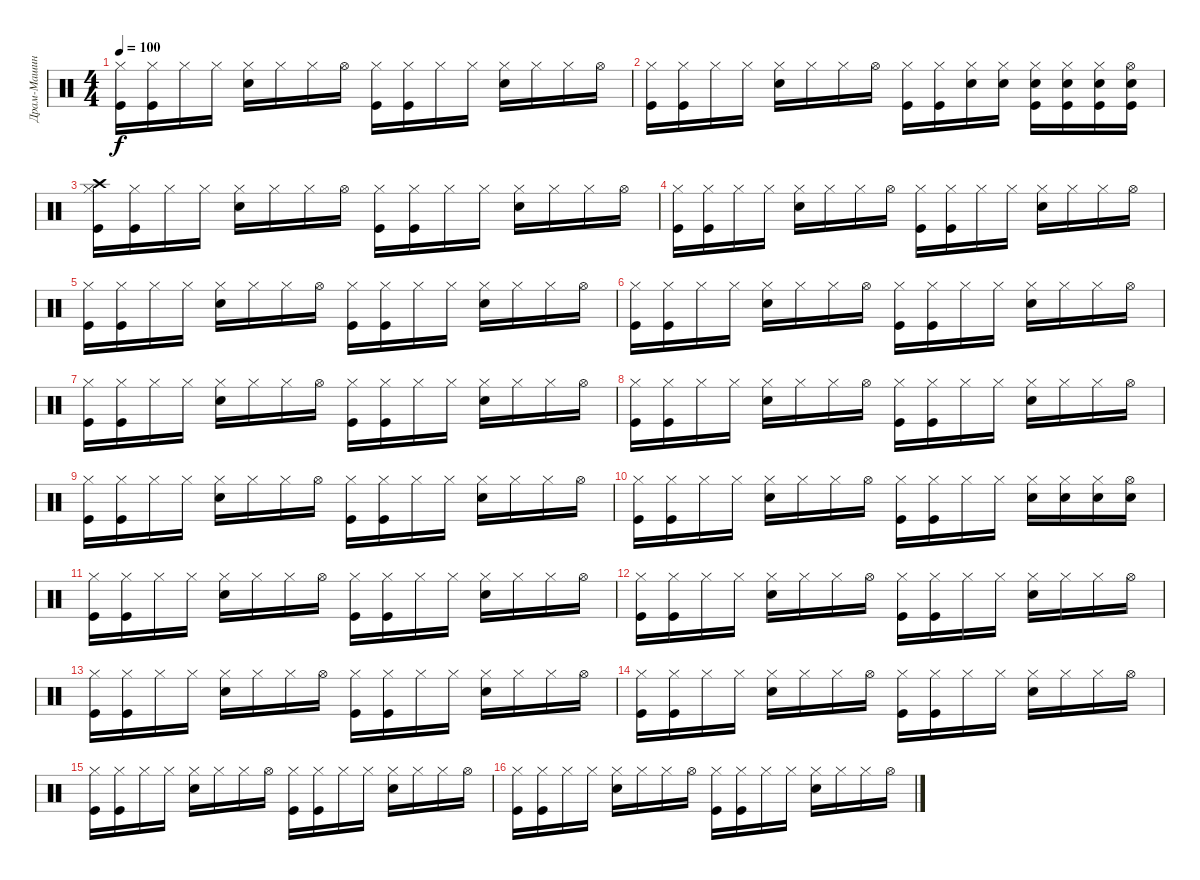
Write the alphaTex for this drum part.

\track ("Драм-Машина" "Драм-Машин") {instrument percussion}
\staff {score}
\articulation defaults
\ts (4 4)
\tempo 100
\clef neutral
\ks c
("Kick (hit)" "Hi-Hat (closed)").16{dy f} ("Kick (hit)" "Hi-Hat (closed)").16 "Hi-Hat (closed)".16 "Hi-Hat (closed)".16 ("Hi-Hat (closed)" "Electric Snare (hit)").16 "Hi-Hat (closed)".16 "Hi-Hat (closed)".16 "Hi-Hat (open)".16 ("Kick (hit)" "Hi-Hat (closed)").16 ("Kick (hit)" "Hi-Hat (closed)").16 "Hi-Hat (closed)".16 "Hi-Hat (closed)".16 ("Hi-Hat (closed)" "Electric Snare (hit)").16 "Hi-Hat (closed)".16 "Hi-Hat (closed)".16 "Hi-Hat (open)".16 |
("Kick (hit)" "Hi-Hat (closed)").16 ("Kick (hit)" "Hi-Hat (closed)").16 "Hi-Hat (closed)".16 "Hi-Hat (closed)".16 ("Hi-Hat (closed)" "Electric Snare (hit)").16 "Hi-Hat (closed)".16 "Hi-Hat (closed)".16 "Hi-Hat (open)".16 ("Kick (hit)" "Hi-Hat (closed)").16 ("Kick (hit)" "Hi-Hat (closed)").16 ("Electric Snare (hit)" "Hi-Hat (closed)").16 ("Electric Snare (hit)" "Hi-Hat (closed)").16 ("Kick (hit)" "Hi-Hat (closed)" "Electric Snare (hit)").16 ("Electric Snare (hit)" "Kick (hit)" "Hi-Hat (closed)").16 ("Electric Snare (hit)" "Kick (hit)" "Hi-Hat (closed)").16 ("Electric Snare (hit)" "Kick (hit)" "Hi-Hat (open)").16 |
("Crash high (hit)" "Kick (hit)" "Hi-Hat (closed)").16 ("Kick (hit)" "Hi-Hat (closed)").16 "Hi-Hat (closed)".16 "Hi-Hat (closed)".16 ("Hi-Hat (closed)" "Electric Snare (hit)").16 "Hi-Hat (closed)".16 "Hi-Hat (closed)".16 "Hi-Hat (open)".16 ("Kick (hit)" "Hi-Hat (closed)").16 ("Kick (hit)" "Hi-Hat (closed)").16 "Hi-Hat (closed)".16 "Hi-Hat (closed)".16 ("Hi-Hat (closed)" "Electric Snare (hit)").16 "Hi-Hat (closed)".16 "Hi-Hat (closed)".16 "Hi-Hat (open)".16 |
("Kick (hit)" "Hi-Hat (closed)").16 ("Kick (hit)" "Hi-Hat (closed)").16 "Hi-Hat (closed)".16 "Hi-Hat (closed)".16 ("Hi-Hat (closed)" "Electric Snare (hit)").16 "Hi-Hat (closed)".16 "Hi-Hat (closed)".16 "Hi-Hat (open)".16 ("Kick (hit)" "Hi-Hat (closed)").16 ("Kick (hit)" "Hi-Hat (closed)").16 "Hi-Hat (closed)".16 "Hi-Hat (closed)".16 ("Hi-Hat (closed)" "Electric Snare (hit)").16 "Hi-Hat (closed)".16 "Hi-Hat (closed)".16 "Hi-Hat (open)".16 |
("Kick (hit)" "Hi-Hat (closed)").16 ("Kick (hit)" "Hi-Hat (closed)").16 "Hi-Hat (closed)".16 "Hi-Hat (closed)".16 ("Hi-Hat (closed)" "Electric Snare (hit)").16 "Hi-Hat (closed)".16 "Hi-Hat (closed)".16 "Hi-Hat (open)".16 ("Kick (hit)" "Hi-Hat (closed)").16 ("Kick (hit)" "Hi-Hat (closed)").16 "Hi-Hat (closed)".16 "Hi-Hat (closed)".16 ("Hi-Hat (closed)" "Electric Snare (hit)").16 "Hi-Hat (closed)".16 "Hi-Hat (closed)".16 "Hi-Hat (open)".16 |
("Kick (hit)" "Hi-Hat (closed)").16 ("Kick (hit)" "Hi-Hat (closed)").16 "Hi-Hat (closed)".16 "Hi-Hat (closed)".16 ("Hi-Hat (closed)" "Electric Snare (hit)").16 "Hi-Hat (closed)".16 "Hi-Hat (closed)".16 "Hi-Hat (open)".16 ("Kick (hit)" "Hi-Hat (closed)").16 ("Kick (hit)" "Hi-Hat (closed)").16 "Hi-Hat (closed)".16 "Hi-Hat (closed)".16 ("Hi-Hat (closed)" "Electric Snare (hit)").16 "Hi-Hat (closed)".16 "Hi-Hat (closed)".16 "Hi-Hat (open)".16 |
("Kick (hit)" "Hi-Hat (closed)").16 ("Kick (hit)" "Hi-Hat (closed)").16 "Hi-Hat (closed)".16 "Hi-Hat (closed)".16 ("Hi-Hat (closed)" "Electric Snare (hit)").16 "Hi-Hat (closed)".16 "Hi-Hat (closed)".16 "Hi-Hat (open)".16 ("Kick (hit)" "Hi-Hat (closed)").16 ("Kick (hit)" "Hi-Hat (closed)").16 "Hi-Hat (closed)".16 "Hi-Hat (closed)".16 ("Hi-Hat (closed)" "Electric Snare (hit)").16 "Hi-Hat (closed)".16 "Hi-Hat (closed)".16 "Hi-Hat (open)".16 |
("Kick (hit)" "Hi-Hat (closed)").16 ("Kick (hit)" "Hi-Hat (closed)").16 "Hi-Hat (closed)".16 "Hi-Hat (closed)".16 ("Hi-Hat (closed)" "Electric Snare (hit)").16 "Hi-Hat (closed)".16 "Hi-Hat (closed)".16 "Hi-Hat (open)".16 ("Kick (hit)" "Hi-Hat (closed)").16 ("Kick (hit)" "Hi-Hat (closed)").16 "Hi-Hat (closed)".16 "Hi-Hat (closed)".16 ("Hi-Hat (closed)" "Electric Snare (hit)").16 "Hi-Hat (closed)".16 "Hi-Hat (closed)".16 "Hi-Hat (open)".16 |
("Kick (hit)" "Hi-Hat (closed)").16 ("Kick (hit)" "Hi-Hat (closed)").16 "Hi-Hat (closed)".16 "Hi-Hat (closed)".16 ("Hi-Hat (closed)" "Electric Snare (hit)").16 "Hi-Hat (closed)".16 "Hi-Hat (closed)".16 "Hi-Hat (open)".16 ("Kick (hit)" "Hi-Hat (closed)").16 ("Kick (hit)" "Hi-Hat (closed)").16 "Hi-Hat (closed)".16 "Hi-Hat (closed)".16 ("Hi-Hat (closed)" "Electric Snare (hit)").16 "Hi-Hat (closed)".16 "Hi-Hat (closed)".16 "Hi-Hat (open)".16 |
("Kick (hit)" "Hi-Hat (closed)").16 ("Kick (hit)" "Hi-Hat (closed)").16 "Hi-Hat (closed)".16 "Hi-Hat (closed)".16 ("Hi-Hat (closed)" "Electric Snare (hit)").16 "Hi-Hat (closed)".16 "Hi-Hat (closed)".16 "Hi-Hat (open)".16 ("Kick (hit)" "Hi-Hat (closed)").16 ("Kick (hit)" "Hi-Hat (closed)").16 "Hi-Hat (closed)".16 "Hi-Hat (closed)".16 ("Hi-Hat (closed)" "Electric Snare (hit)").16 ("Electric Snare (hit)" "Hi-Hat (closed)").16 ("Electric Snare (hit)" "Hi-Hat (closed)").16 ("Electric Snare (hit)" "Hi-Hat (open)").16 |
("Kick (hit)" "Hi-Hat (closed)").16 ("Kick (hit)" "Hi-Hat (closed)").16 "Hi-Hat (closed)".16 "Hi-Hat (closed)".16 ("Hi-Hat (closed)" "Electric Snare (hit)").16 "Hi-Hat (closed)".16 "Hi-Hat (closed)".16 "Hi-Hat (open)".16 ("Kick (hit)" "Hi-Hat (closed)").16 ("Kick (hit)" "Hi-Hat (closed)").16 "Hi-Hat (closed)".16 "Hi-Hat (closed)".16 ("Hi-Hat (closed)" "Electric Snare (hit)").16 "Hi-Hat (closed)".16 "Hi-Hat (closed)".16 "Hi-Hat (open)".16 |
("Kick (hit)" "Hi-Hat (closed)").16 ("Kick (hit)" "Hi-Hat (closed)").16 "Hi-Hat (closed)".16 "Hi-Hat (closed)".16 ("Hi-Hat (closed)" "Electric Snare (hit)").16 "Hi-Hat (closed)".16 "Hi-Hat (closed)".16 "Hi-Hat (open)".16 ("Kick (hit)" "Hi-Hat (closed)").16 ("Kick (hit)" "Hi-Hat (closed)").16 "Hi-Hat (closed)".16 "Hi-Hat (closed)".16 ("Hi-Hat (closed)" "Electric Snare (hit)").16 "Hi-Hat (closed)".16 "Hi-Hat (closed)".16 "Hi-Hat (open)".16 |
("Kick (hit)" "Hi-Hat (closed)").16 ("Kick (hit)" "Hi-Hat (closed)").16 "Hi-Hat (closed)".16 "Hi-Hat (closed)".16 ("Hi-Hat (closed)" "Electric Snare (hit)").16 "Hi-Hat (closed)".16 "Hi-Hat (closed)".16 "Hi-Hat (open)".16 ("Kick (hit)" "Hi-Hat (closed)").16 ("Kick (hit)" "Hi-Hat (closed)").16 "Hi-Hat (closed)".16 "Hi-Hat (closed)".16 ("Hi-Hat (closed)" "Electric Snare (hit)").16 "Hi-Hat (closed)".16 "Hi-Hat (closed)".16 "Hi-Hat (open)".16 |
("Kick (hit)" "Hi-Hat (closed)").16 ("Kick (hit)" "Hi-Hat (closed)").16 "Hi-Hat (closed)".16 "Hi-Hat (closed)".16 ("Hi-Hat (closed)" "Electric Snare (hit)").16 "Hi-Hat (closed)".16 "Hi-Hat (closed)".16 "Hi-Hat (open)".16 ("Kick (hit)" "Hi-Hat (closed)").16 ("Kick (hit)" "Hi-Hat (closed)").16 "Hi-Hat (closed)".16 "Hi-Hat (closed)".16 ("Hi-Hat (closed)" "Electric Snare (hit)").16 "Hi-Hat (closed)".16 "Hi-Hat (closed)".16 "Hi-Hat (open)".16 |
("Kick (hit)" "Hi-Hat (closed)").16 ("Kick (hit)" "Hi-Hat (closed)").16 "Hi-Hat (closed)".16 "Hi-Hat (closed)".16 ("Hi-Hat (closed)" "Electric Snare (hit)").16 "Hi-Hat (closed)".16 "Hi-Hat (closed)".16 "Hi-Hat (open)".16 ("Kick (hit)" "Hi-Hat (closed)").16 ("Kick (hit)" "Hi-Hat (closed)").16 "Hi-Hat (closed)".16 "Hi-Hat (closed)".16 ("Hi-Hat (closed)" "Electric Snare (hit)").16 "Hi-Hat (closed)".16 "Hi-Hat (closed)".16 "Hi-Hat (open)".16 |
("Kick (hit)" "Hi-Hat (closed)").16 ("Kick (hit)" "Hi-Hat (closed)").16 "Hi-Hat (closed)".16 "Hi-Hat (closed)".16 ("Hi-Hat (closed)" "Electric Snare (hit)").16 "Hi-Hat (closed)".16 "Hi-Hat (closed)".16 "Hi-Hat (open)".16 ("Kick (hit)" "Hi-Hat (closed)").16 ("Kick (hit)" "Hi-Hat (closed)").16 "Hi-Hat (closed)".16 "Hi-Hat (closed)".16 ("Hi-Hat (closed)" "Electric Snare (hit)").16 "Hi-Hat (closed)".16 "Hi-Hat (closed)".16 "Hi-Hat (open)".16
